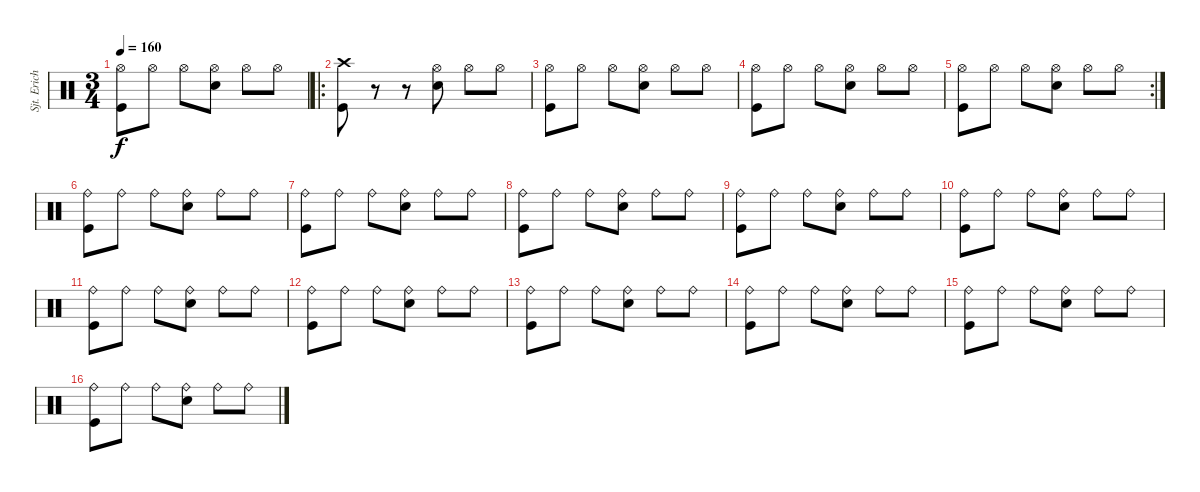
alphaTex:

\track ("Sjt. Erichsen" "Sjt. Erich") {instrument percussion}
\staff {score}
\articulation defaults
\ts (3 4)
\tempo 160
\clef neutral
\ks c
("Hi-Hat (open)" "Kick (hit)").8{dy f} "Hi-Hat (open)".8 "Hi-Hat (open)".8 ("Hi-Hat (open)" "Electric Snare (hit)").8 "Hi-Hat (open)".8 "Hi-Hat (open)".8 |
\ro
("Crash high (hit)" "Kick (hit)").8 r.8 r.8 ("Hi-Hat (open)" "Electric Snare (hit)").8 "Hi-Hat (open)".8 "Hi-Hat (open)".8 |
("Hi-Hat (open)" "Kick (hit)").8 "Hi-Hat (open)".8 "Hi-Hat (open)".8 ("Hi-Hat (open)" "Electric Snare (hit)").8 "Hi-Hat (open)".8 "Hi-Hat (open)".8 |
("Hi-Hat (open)" "Kick (hit)").8 "Hi-Hat (open)".8 "Hi-Hat (open)".8 ("Hi-Hat (open)" "Electric Snare (hit)").8 "Hi-Hat (open)".8 "Hi-Hat (open)".8 |
\rc 2
("Hi-Hat (open)" "Kick (hit)").8 "Hi-Hat (open)".8 "Hi-Hat (open)".8 ("Hi-Hat (open)" "Electric Snare (hit)").8 "Hi-Hat (open)".8 "Hi-Hat (open)".8 |
("Ride (bell)" "Kick (hit)").8 "Ride (bell)".8 "Ride (bell)".8 ("Ride (bell)" "Electric Snare (hit)").8 "Ride (bell)".8 "Ride (bell)".8 |
("Ride (bell)" "Kick (hit)").8 "Ride (bell)".8 "Ride (bell)".8 ("Ride (bell)" "Electric Snare (hit)").8 "Ride (bell)".8 "Ride (bell)".8 |
("Ride (bell)" "Kick (hit)").8{volume 12} "Ride (bell)".8 "Ride (bell)".8 ("Ride (bell)" "Electric Snare (hit)").8 "Ride (bell)".8 "Ride (bell)".8 |
("Ride (bell)" "Kick (hit)").8 "Ride (bell)".8 "Ride (bell)".8 ("Ride (bell)" "Electric Snare (hit)").8 "Ride (bell)".8 "Ride (bell)".8 |
("Ride (bell)" "Kick (hit)").8 "Ride (bell)".8 "Ride (bell)".8 ("Ride (bell)" "Electric Snare (hit)").8 "Ride (bell)".8 "Ride (bell)".8 |
("Ride (bell)" "Kick (hit)").8 "Ride (bell)".8 "Ride (bell)".8 ("Ride (bell)" "Electric Snare (hit)").8 "Ride (bell)".8 "Ride (bell)".8 |
("Ride (bell)" "Kick (hit)").8 "Ride (bell)".8 "Ride (bell)".8 ("Ride (bell)" "Electric Snare (hit)").8 "Ride (bell)".8 "Ride (bell)".8 |
("Ride (bell)" "Kick (hit)").8 "Ride (bell)".8 "Ride (bell)".8 ("Ride (bell)" "Electric Snare (hit)").8 "Ride (bell)".8 "Ride (bell)".8 |
("Ride (bell)" "Kick (hit)").8{volume 7} "Ride (bell)".8 "Ride (bell)".8 ("Ride (bell)" "Electric Snare (hit)").8 "Ride (bell)".8 "Ride (bell)".8 |
("Ride (bell)" "Kick (hit)").8 "Ride (bell)".8 "Ride (bell)".8 ("Ride (bell)" "Electric Snare (hit)").8 "Ride (bell)".8 "Ride (bell)".8 |
("Ride (bell)" "Kick (hit)").8 "Ride (bell)".8 "Ride (bell)".8 ("Ride (bell)" "Electric Snare (hit)").8 "Ride (bell)".8 "Ride (bell)".8
